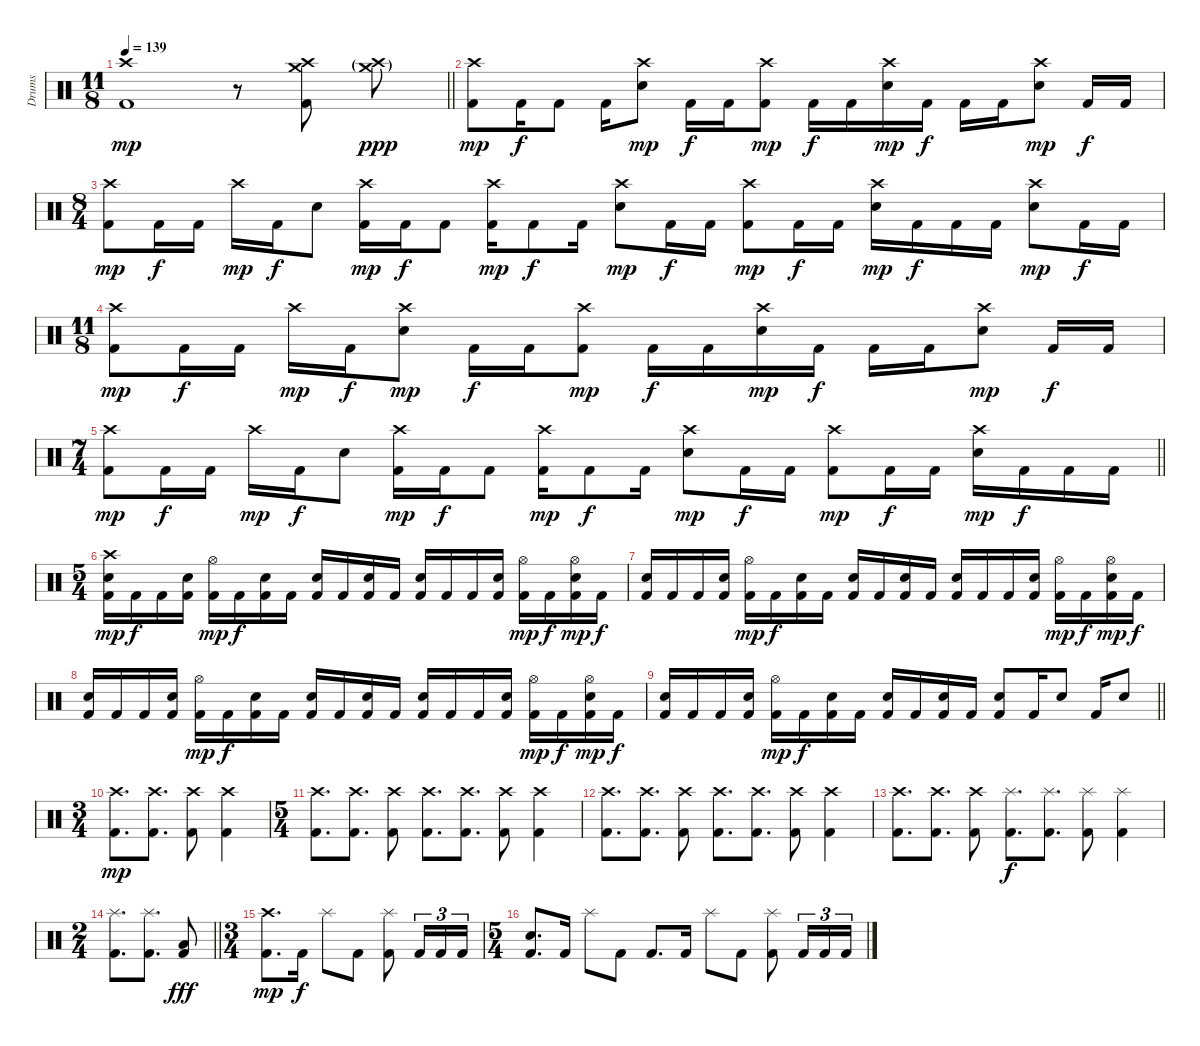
\track ("Drums" "Drums") {instrument percussion}
\staff {score}
\articulation defaults
\ts (11 8)
\tempo 139
\clef neutral
\barLineRight lightlight
\ks c
("Crash high (hit)" "Kick (hit) 2").1{dy mp} r.8 ("Crash high (hit)" "Crash medium (hit)" "Kick (hit) 2").8 ("Crash high (hit)"{g} "Crash medium (hit)"{g}).8{dy ppp} |
("Crash high (hit)" "Kick (hit) 2").8{dy mp} "Kick (hit) 2".16{dy f} "Kick (hit) 2".8 "Kick (hit) 2".16 ("Crash high (hit)" "Snare (hit) 2").8{dy mp} "Kick (hit) 2".16{dy f} "Kick (hit) 2".16 ("Crash high (hit)" "Kick (hit) 2").8{dy mp} "Kick (hit) 2".16{dy f} "Kick (hit) 2".16 ("Crash high (hit)" "Snare (hit) 2").16{dy mp} "Kick (hit) 2".16{dy f} "Kick (hit) 2".16 "Kick (hit) 2".16 ("Crash high (hit)" "Snare (hit) 2").8{dy mp} "Kick (hit) 2".16{dy f} "Kick (hit) 2".16 |
\ts (8 4)
("Crash high (hit)" "Kick (hit) 2").8{dy mp} "Kick (hit) 2".16{dy f} "Kick (hit) 2".16 "Crash high (hit)".16{dy mp} "Kick (hit) 2".16{dy f} "Snare (hit) 2".8 ("Crash high (hit)" "Kick (hit) 2").16{dy mp} "Kick (hit) 2".16{dy f} "Kick (hit) 2".8 ("Crash high (hit)" "Kick (hit) 2").16{dy mp} "Kick (hit) 2".8{dy f} "Kick (hit) 2".16 ("Crash high (hit)" "Snare (hit) 2").8{dy mp} "Kick (hit) 2".16{dy f} "Kick (hit) 2".16 ("Crash high (hit)" "Kick (hit) 2").8{dy mp} "Kick (hit) 2".16{dy f} "Kick (hit) 2".16 ("Crash high (hit)" "Snare (hit) 2").16{dy mp} "Kick (hit) 2".16{dy f} "Kick (hit) 2".16 "Kick (hit) 2".16 ("Crash high (hit)" "Snare (hit) 2").8{dy mp} "Kick (hit) 2".16{dy f} "Kick (hit) 2".16 |
\ts (11 8)
("Crash high (hit)" "Kick (hit) 2").8{dy mp} "Kick (hit) 2".16{dy f} "Kick (hit) 2".16 "Crash high (hit)".16{dy mp} "Kick (hit) 2".16{dy f} ("Crash high (hit)" "Snare (hit) 2").8{dy mp} "Kick (hit) 2".16{dy f} "Kick (hit) 2".16 ("Crash high (hit)" "Kick (hit) 2").8{dy mp} "Kick (hit) 2".16{dy f} "Kick (hit) 2".16 ("Crash high (hit)" "Snare (hit) 2").16{dy mp} "Kick (hit) 2".16{dy f} "Kick (hit) 2".16 "Kick (hit) 2".16 ("Crash high (hit)" "Snare (hit) 2").8{dy mp} "Kick (hit) 2".16{dy f} "Kick (hit) 2".16 |
\ts (7 4)
\barLineRight lightlight
("Crash high (hit)" "Kick (hit) 2").8{dy mp} "Kick (hit) 2".16{dy f} "Kick (hit) 2".16 "Crash high (hit)".16{dy mp} "Kick (hit) 2".16{dy f} "Snare (hit) 2".8 ("Crash high (hit)" "Kick (hit) 2").16{dy mp} "Kick (hit) 2".16{dy f} "Kick (hit) 2".8 ("Crash high (hit)" "Kick (hit) 2").16{dy mp} "Kick (hit) 2".8{dy f} "Kick (hit) 2".16 ("Crash high (hit)" "Snare (hit) 2").8{dy mp} "Kick (hit) 2".16{dy f} "Kick (hit) 2".16 ("Crash high (hit)" "Kick (hit) 2").8{dy mp} "Kick (hit) 2".16{dy f} "Kick (hit) 2".16 ("Crash high (hit)" "Snare (hit) 2").16{dy mp} "Kick (hit) 2".16{dy f} "Kick (hit) 2".16 "Kick (hit) 2".16 |
\ts (5 4)
("Crash high (hit)" "Snare (hit) 2" "Kick (hit) 2").16{dy mp} "Kick (hit) 2".16{dy f} "Kick (hit) 2".16 ("Snare (hit) 2" "Kick (hit) 2").16 ("Hi-Hat (open)" "Kick (hit) 2").16{dy mp} "Kick (hit) 2".16{dy f} ("Snare (hit) 2" "Kick (hit) 2").16 "Kick (hit) 2".16 ("Snare (hit) 2" "Kick (hit) 2").16 "Kick (hit) 2".16 ("Snare (hit) 2" "Kick (hit) 2").16 "Kick (hit) 2".16 ("Snare (hit) 2" "Kick (hit) 2").16 "Kick (hit) 2".16 "Kick (hit) 2".16 ("Snare (hit) 2" "Kick (hit) 2").16 ("Hi-Hat (open)" "Kick (hit) 2").16{dy mp} "Kick (hit) 2".16{dy f} ("Hi-Hat (open)" "Snare (hit) 2" "Kick (hit) 2").16{dy mp} "Kick (hit) 2".16{dy f} |
("Snare (hit) 2" "Kick (hit) 2").16 "Kick (hit) 2".16 "Kick (hit) 2".16 ("Snare (hit) 2" "Kick (hit) 2").16 ("Hi-Hat (open)" "Kick (hit) 2").16{dy mp} "Kick (hit) 2".16{dy f} ("Snare (hit) 2" "Kick (hit) 2").16 "Kick (hit) 2".16 ("Snare (hit) 2" "Kick (hit) 2").16 "Kick (hit) 2".16 ("Snare (hit) 2" "Kick (hit) 2").16 "Kick (hit) 2".16 ("Snare (hit) 2" "Kick (hit) 2").16 "Kick (hit) 2".16 "Kick (hit) 2".16 ("Snare (hit) 2" "Kick (hit) 2").16 ("Hi-Hat (open)" "Kick (hit) 2").16{dy mp} "Kick (hit) 2".16{dy f} ("Hi-Hat (open)" "Snare (hit) 2" "Kick (hit) 2").16{dy mp} "Kick (hit) 2".16{dy f} |
("Snare (hit) 2" "Kick (hit) 2").16 "Kick (hit) 2".16 "Kick (hit) 2".16 ("Snare (hit) 2" "Kick (hit) 2").16 ("Hi-Hat (open)" "Kick (hit) 2").16{dy mp} "Kick (hit) 2".16{dy f} ("Snare (hit) 2" "Kick (hit) 2").16 "Kick (hit) 2".16 ("Snare (hit) 2" "Kick (hit) 2").16 "Kick (hit) 2".16 ("Snare (hit) 2" "Kick (hit) 2").16 "Kick (hit) 2".16 ("Snare (hit) 2" "Kick (hit) 2").16 "Kick (hit) 2".16 "Kick (hit) 2".16 ("Snare (hit) 2" "Kick (hit) 2").16 ("Hi-Hat (open)" "Kick (hit) 2").16{dy mp} "Kick (hit) 2".16{dy f} ("Hi-Hat (open)" "Snare (hit) 2" "Kick (hit) 2").16{dy mp} "Kick (hit) 2".16{dy f} |
\barLineRight lightlight
("Snare (hit) 2" "Kick (hit) 2").16 "Kick (hit) 2".16 "Kick (hit) 2".16 ("Snare (hit) 2" "Kick (hit) 2").16 ("Hi-Hat (open)" "Kick (hit) 2").16{dy mp} "Kick (hit) 2".16{dy f} ("Snare (hit) 2" "Kick (hit) 2").16 "Kick (hit) 2".16 ("Snare (hit) 2" "Kick (hit) 2").16 "Kick (hit) 2".16 ("Snare (hit) 2" "Kick (hit) 2").16 "Kick (hit) 2".16 ("Snare (hit) 2" "Kick (hit) 2").8 "Kick (hit) 2".16 "Snare (hit) 2".8 "Kick (hit) 2".16 "Snare (hit) 2".8 |
\ts (3 4)
("Crash high (hit)" "Kick (hit) 2").8{d dy mp} ("Crash high (hit)" "Kick (hit) 2").8{d} ("Crash high (hit)" "Kick (hit) 2").8 ("Crash high (hit)" "Kick (hit) 2").4 |
\ts (5 4)
("Crash high (hit)" "Kick (hit) 2").8{d} ("Crash high (hit)" "Kick (hit) 2").8{d} ("Crash high (hit)" "Kick (hit) 2").8 ("Crash high (hit)" "Kick (hit) 2").8{d} ("Crash high (hit)" "Kick (hit) 2").8{d} ("Crash high (hit)" "Kick (hit) 2").8 ("Crash high (hit)" "Kick (hit) 2").4 |
("Crash high (hit)" "Kick (hit) 2").8{d} ("Crash high (hit)" "Kick (hit) 2").8{d} ("Crash high (hit)" "Kick (hit) 2").8 ("Crash high (hit)" "Kick (hit) 2").8{d} ("Crash high (hit)" "Kick (hit) 2").8{d} ("Crash high (hit)" "Kick (hit) 2").8 ("Crash high (hit)" "Kick (hit) 2").4 |
("Crash high (hit)" "Kick (hit) 2").8{d} ("Crash high (hit)" "Kick (hit) 2").8{d} ("Crash high (hit)" "Kick (hit) 2").8 ("Splash (hit)" "Kick (hit) 2").8{d dy f} ("Splash (hit)" "Kick (hit) 2").8{d} ("Splash (hit)" "Kick (hit) 2").8 ("Splash (hit)" "Kick (hit) 2").4 |
\ts (2 4)
\barLineRight lightlight
("Splash (hit)" "Kick (hit) 2").8{d} ("Splash (hit)" "Kick (hit) 2").8{d} ("Low Tom (hit)" "Kick (hit) 2").8{dy fff} |
\ts (3 4)
("Crash high (hit)" "Kick (hit) 2").8{d dy mp} "Kick (hit) 2".16{dy f} "Splash (hit)".8 "Kick (hit) 2".8 ("Splash (hit)" "Kick (hit) 2").8 "Kick (hit) 2".16{tu (3 2)} "Kick (hit) 2".16{tu (3 2)} "Kick (hit) 2".16{tu (3 2)} |
\ts (5 4)
("Snare (hit) 2" "Kick (hit) 2").8{d} "Kick (hit) 2".16 "Splash (hit)".8 "Kick (hit) 2".8 "Kick (hit) 2".8{d} "Kick (hit) 2".16 "Splash (hit)".8 "Kick (hit) 2".8 ("Splash (hit)" "Kick (hit) 2").8 "Kick (hit) 2".16{tu (3 2)} "Kick (hit) 2".16{tu (3 2)} "Kick (hit) 2".16{tu (3 2)}
